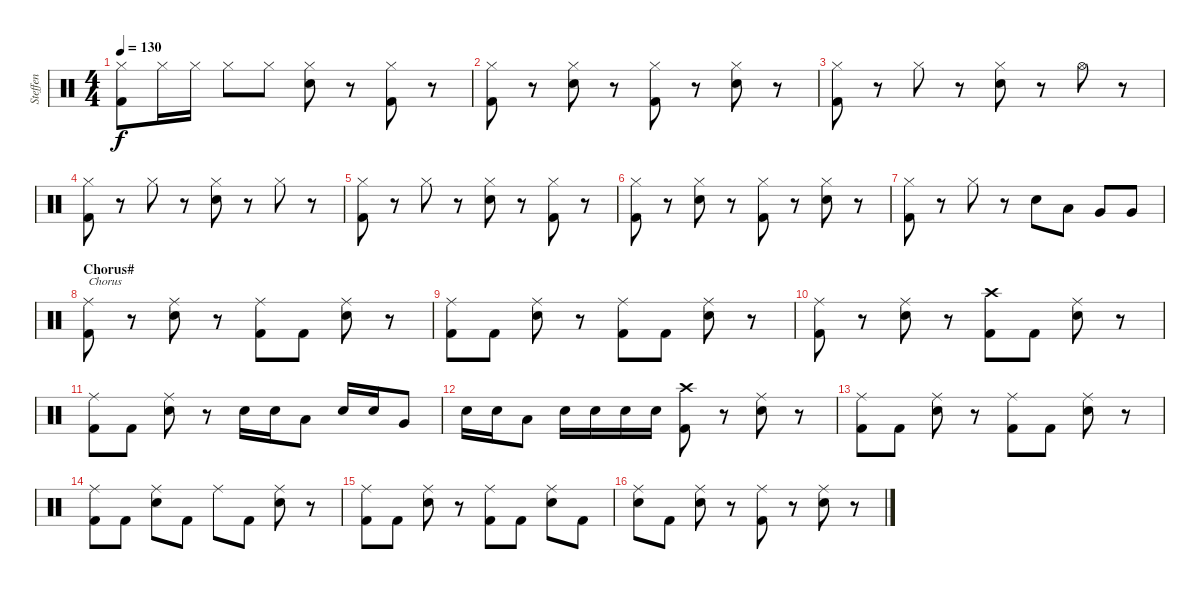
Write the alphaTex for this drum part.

\track ("Steffen" "Steffen") {instrument percussion}
\staff {score}
\articulation defaults
\ts (4 4)
\tempo 130
\clef neutral
\ks c
("Hi-Hat (closed)" "Kick (hit) 2").8{dy f} "Hi-Hat (closed)".16 "Hi-Hat (closed)".16 "Hi-Hat (closed)".8 "Hi-Hat (closed)".8 ("Hi-Hat (closed)" "Snare (hit) 2").8 r.8 ("Hi-Hat (closed)" "Kick (hit) 2").8 r.8 |
("Hi-Hat (closed)" "Kick (hit) 2").8 r.8 ("Hi-Hat (closed)" "Snare (hit) 2").8 r.8 ("Hi-Hat (closed)" "Kick (hit) 2").8 r.8 ("Hi-Hat (closed)" "Snare (hit) 2").8 r.8 |
("Hi-Hat (closed)" "Kick (hit) 2").8 r.8 "Hi-Hat (closed)".8 r.8 ("Hi-Hat (closed)" "Snare (hit) 2").8 r.8 "Hi-Hat (open)".8 r.8 |
("Hi-Hat (closed)" "Kick (hit) 2").8 r.8 "Hi-Hat (closed)".8 r.8 ("Hi-Hat (closed)" "Snare (hit) 2").8 r.8 "Hi-Hat (closed)".8 r.8 |
("Hi-Hat (closed)" "Kick (hit) 2").8 r.8 "Hi-Hat (closed)".8 r.8 ("Hi-Hat (closed)" "Snare (hit) 2").8 r.8 ("Hi-Hat (closed)" "Kick (hit) 2").8 r.8 |
("Hi-Hat (closed)" "Kick (hit) 2").8 r.8 ("Hi-Hat (closed)" "Snare (hit) 2").8 r.8 ("Hi-Hat (closed)" "Kick (hit) 2").8 r.8 ("Hi-Hat (closed)" "Snare (hit) 2").8 r.8 |
("Hi-Hat (closed)" "Kick (hit) 2").8 r.8 "Hi-Hat (closed)".8 r.8 "Snare (hit) 2".8 "Low Tom (hit)".8 "Very Low Tom (hit)".8 "Very Low Tom (hit)".8 |
\section ("" "Chorus#")
("Ride (middle)" "Kick (hit) 2").8{txt "Chorus"} r.8 ("Ride (middle)" "Snare (hit) 2").8 r.8 ("Ride (middle)" "Kick (hit) 2").8 "Kick (hit) 2".8 ("Ride (middle)" "Snare (hit) 2").8 r.8 |
("Ride (middle)" "Kick (hit) 2").8 "Kick (hit) 2".8 ("Ride (middle)" "Snare (hit) 2").8 r.8 ("Ride (middle)" "Kick (hit) 2").8 "Kick (hit) 2".8 ("Ride (middle)" "Snare (hit) 2").8 r.8 |
("Ride (middle)" "Kick (hit) 2").8 r.8 ("Ride (middle)" "Snare (hit) 2").8 r.8 ("Crash high (hit)" "Kick (hit) 2").8 "Kick (hit) 2".8 ("Ride (middle)" "Snare (hit) 2").8 r.8 |
("Ride (middle)" "Kick (hit) 2").8 "Kick (hit) 2".8 ("Ride (middle)" "Snare (hit) 2").8 r.8 "Snare (hit) 2".16 "Snare (hit) 2".16 "Low Tom (hit)".8 "Snare (hit) 2".16 "Snare (hit) 2".16 "Very Low Tom (hit)".8 |
"Snare (hit) 2".16 "Snare (hit) 2".16 "Low Floor Tom (hit)".8 "Snare (hit) 2".16 "Snare (hit) 2".16 "Snare (hit) 2".16 "Snare (hit) 2".16 ("Crash high (hit)" "Kick (hit) 2").8 r.8 ("Ride (middle)" "Snare (hit) 2").8 r.8 |
("Ride (middle)" "Kick (hit) 2").8 "Kick (hit) 2".8 ("Ride (middle)" "Snare (hit) 2").8 r.8 ("Ride (middle)" "Kick (hit) 2").8 "Kick (hit) 2".8 ("Ride (middle)" "Snare (hit) 2").8 r.8 |
("Ride (middle)" "Kick (hit) 2").8 "Kick (hit) 2".8 ("Ride (middle)" "Snare (hit) 2").8 "Kick (hit) 2".8 "Ride (middle)".8 "Kick (hit) 2".8 ("Ride (middle)" "Snare (hit) 2").8 r.8 |
("Ride (middle)" "Kick (hit) 2").8 "Kick (hit) 2".8 ("Ride (middle)" "Snare (hit) 2").8 r.8 ("Ride (middle)" "Kick (hit) 2").8 "Kick (hit) 2".8 ("Ride (middle)" "Snare (hit) 2").8 "Kick (hit) 2".8 |
("Ride (middle)" "Snare (hit) 2").8 "Kick (hit) 2".8 ("Ride (middle)" "Snare (hit) 2").8 r.8 ("Ride (middle)" "Kick (hit) 2").8 r.8 ("Ride (middle)" "Snare (hit) 2").8 r.8
